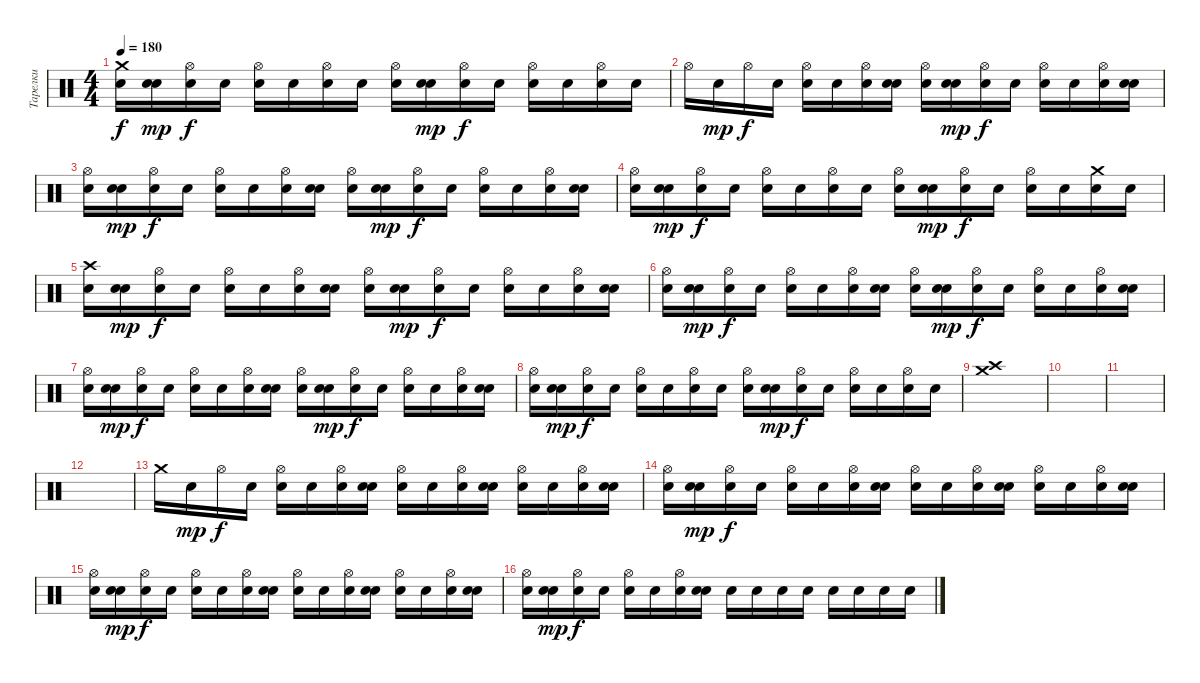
\track ("Тарелки" "Тарелки") {instrument percussion}
\staff {score}
\articulation defaults
\ts (4 4)
\tempo 180
\clef neutral
\ks c
("Crash medium (hit)" "Snare (hit)").16{dy f} ("Snare (hit)" "Snare (hit)").16{dy mp} ("Hi-Hat (open)" "Snare (hit)").16{dy f} "Snare (hit)".16 ("Hi-Hat (open)" "Snare (hit)").16 "Snare (hit)".16 ("Hi-Hat (open)" "Snare (hit)").16 "Snare (hit)".16 ("Hi-Hat (open)" "Snare (hit)").16 ("Snare (hit)" "Snare (hit)").16{dy mp} ("Hi-Hat (open)" "Snare (hit)").16{dy f} "Snare (hit)".16 ("Hi-Hat (open)" "Snare (hit)").16 "Snare (hit)".16 ("Hi-Hat (open)" "Snare (hit)").16 "Snare (hit)".16 |
"Hi-Hat (open)".16 "Snare (hit)".16{dy mp} "Hi-Hat (open)".16{dy f} "Snare (hit)".16 ("Hi-Hat (open)" "Snare (hit)").16 "Snare (hit)".16 ("Hi-Hat (open)" "Snare (hit)").16 ("Snare (hit)" "Snare (hit)").16 ("Hi-Hat (open)" "Snare (hit)").16 ("Snare (hit)" "Snare (hit)").16{dy mp} ("Hi-Hat (open)" "Snare (hit)").16{dy f} "Snare (hit)".16 ("Hi-Hat (open)" "Snare (hit)").16 "Snare (hit)".16 ("Hi-Hat (open)" "Snare (hit)").16 ("Snare (hit)" "Snare (hit)").16 |
("Hi-Hat (open)" "Snare (hit)").16 ("Snare (hit)" "Snare (hit)").16{dy mp} ("Hi-Hat (open)" "Snare (hit)").16{dy f} "Snare (hit)".16 ("Hi-Hat (open)" "Snare (hit)").16 "Snare (hit)".16 ("Hi-Hat (open)" "Snare (hit)").16 ("Snare (hit)" "Snare (hit)").16 ("Hi-Hat (open)" "Snare (hit)").16 ("Snare (hit)" "Snare (hit)").16{dy mp} ("Hi-Hat (open)" "Snare (hit)").16{dy f} "Snare (hit)".16 ("Hi-Hat (open)" "Snare (hit)").16 "Snare (hit)".16 ("Hi-Hat (open)" "Snare (hit)").16 ("Snare (hit)" "Snare (hit)").16 |
("Hi-Hat (open)" "Snare (hit)").16 ("Snare (hit)" "Snare (hit)").16{dy mp} ("Hi-Hat (open)" "Snare (hit)").16{dy f} "Snare (hit)".16 ("Hi-Hat (open)" "Snare (hit)").16 "Snare (hit)".16 ("Hi-Hat (open)" "Snare (hit)").16 "Snare (hit)".16 ("Hi-Hat (open)" "Snare (hit)").16 ("Snare (hit)" "Snare (hit)").16{dy mp} ("Hi-Hat (open)" "Snare (hit)").16{dy f} "Snare (hit)".16 ("Hi-Hat (open)" "Snare (hit)").16 "Snare (hit)".16 ("Crash medium (hit)" "Snare (hit)").16 "Snare (hit)".16 |
("Crash high (hit)" "Snare (hit)").16 ("Snare (hit)" "Snare (hit)").16{dy mp} ("Hi-Hat (open)" "Snare (hit)").16{dy f} "Snare (hit)".16 ("Hi-Hat (open)" "Snare (hit)").16 "Snare (hit)".16 ("Hi-Hat (open)" "Snare (hit)").16 ("Snare (hit)" "Snare (hit)").16 ("Hi-Hat (open)" "Snare (hit)").16 ("Snare (hit)" "Snare (hit)").16{dy mp} ("Hi-Hat (open)" "Snare (hit)").16{dy f} "Snare (hit)".16 ("Hi-Hat (open)" "Snare (hit)").16 "Snare (hit)".16 ("Hi-Hat (open)" "Snare (hit)").16 ("Snare (hit)" "Snare (hit)").16 |
("Hi-Hat (open)" "Snare (hit)").16 ("Snare (hit)" "Snare (hit)").16{dy mp} ("Hi-Hat (open)" "Snare (hit)").16{dy f} "Snare (hit)".16 ("Hi-Hat (open)" "Snare (hit)").16 "Snare (hit)".16 ("Hi-Hat (open)" "Snare (hit)").16 ("Snare (hit)" "Snare (hit)").16 ("Hi-Hat (open)" "Snare (hit)").16 ("Snare (hit)" "Snare (hit)").16{dy mp} ("Hi-Hat (open)" "Snare (hit)").16{dy f} "Snare (hit)".16 ("Hi-Hat (open)" "Snare (hit)").16 "Snare (hit)".16 ("Hi-Hat (open)" "Snare (hit)").16 ("Snare (hit)" "Snare (hit)").16 |
("Hi-Hat (open)" "Snare (hit)").16 ("Snare (hit)" "Snare (hit)").16{dy mp} ("Hi-Hat (open)" "Snare (hit)").16{dy f} "Snare (hit)".16 ("Hi-Hat (open)" "Snare (hit)").16 "Snare (hit)".16 ("Hi-Hat (open)" "Snare (hit)").16 ("Snare (hit)" "Snare (hit)").16 ("Hi-Hat (open)" "Snare (hit)").16 ("Snare (hit)" "Snare (hit)").16{dy mp} ("Hi-Hat (open)" "Snare (hit)").16{dy f} "Snare (hit)".16 ("Hi-Hat (open)" "Snare (hit)").16 "Snare (hit)".16 ("Hi-Hat (open)" "Snare (hit)").16 ("Snare (hit)" "Snare (hit)").16 |
("Hi-Hat (open)" "Snare (hit)").16 ("Snare (hit)" "Snare (hit)").16{dy mp} ("Hi-Hat (open)" "Snare (hit)").16{dy f} "Snare (hit)".16 ("Hi-Hat (open)" "Snare (hit)").16 "Snare (hit)".16 ("Hi-Hat (open)" "Snare (hit)").16 "Snare (hit)".16 ("Hi-Hat (open)" "Snare (hit)").16 ("Snare (hit)" "Snare (hit)").16{dy mp} ("Hi-Hat (open)" "Snare (hit)").16{dy f} "Snare (hit)".16 ("Hi-Hat (open)" "Snare (hit)").16 "Snare (hit)".16 ("Hi-Hat (open)" "Snare (hit)").16 "Snare (hit)".16 |
("Crash medium (hit)" "Crash high (hit)").1 |
|
|
|
"Crash medium (hit)".16 "Snare (hit)".16{dy mp} "Hi-Hat (open)".16{dy f} "Snare (hit)".16 ("Hi-Hat (open)" "Snare (hit)").16 "Snare (hit)".16 ("Hi-Hat (open)" "Snare (hit)").16 ("Snare (hit)" "Snare (hit)").16 ("Hi-Hat (open)" "Snare (hit)").16 "Snare (hit)".16 ("Hi-Hat (open)" "Snare (hit)").16 ("Snare (hit)" "Snare (hit)").16 ("Hi-Hat (open)" "Snare (hit)").16 "Snare (hit)".16 ("Hi-Hat (open)" "Snare (hit)").16 ("Snare (hit)" "Snare (hit)").16 |
("Hi-Hat (open)" "Snare (hit)").16 ("Snare (hit)" "Snare (hit)").16{dy mp} ("Hi-Hat (open)" "Snare (hit)").16{dy f} "Snare (hit)".16 ("Hi-Hat (open)" "Snare (hit)").16 "Snare (hit)".16 ("Hi-Hat (open)" "Snare (hit)").16 ("Snare (hit)" "Snare (hit)").16 ("Hi-Hat (open)" "Snare (hit)").16 "Snare (hit)".16 ("Hi-Hat (open)" "Snare (hit)").16 ("Snare (hit)" "Snare (hit)").16 ("Hi-Hat (open)" "Snare (hit)").16 "Snare (hit)".16 ("Hi-Hat (open)" "Snare (hit)").16 ("Snare (hit)" "Snare (hit)").16 |
("Hi-Hat (open)" "Snare (hit)").16 ("Snare (hit)" "Snare (hit)").16{dy mp} ("Hi-Hat (open)" "Snare (hit)").16{dy f} "Snare (hit)".16 ("Hi-Hat (open)" "Snare (hit)").16 "Snare (hit)".16 ("Hi-Hat (open)" "Snare (hit)").16 ("Snare (hit)" "Snare (hit)").16 ("Hi-Hat (open)" "Snare (hit)").16 "Snare (hit)".16 ("Hi-Hat (open)" "Snare (hit)").16 ("Snare (hit)" "Snare (hit)").16 ("Hi-Hat (open)" "Snare (hit)").16 "Snare (hit)".16 ("Hi-Hat (open)" "Snare (hit)").16 ("Snare (hit)" "Snare (hit)").16 |
("Hi-Hat (open)" "Snare (hit)").16 ("Snare (hit)" "Snare (hit)").16{dy mp} ("Hi-Hat (open)" "Snare (hit)").16{dy f} "Snare (hit)".16 ("Hi-Hat (open)" "Snare (hit)").16 "Snare (hit)".16 ("Hi-Hat (open)" "Snare (hit)").16 ("Snare (hit)" "Snare (hit)").16 "Snare (hit)".16 "Snare (hit)".16 "Snare (hit)".16 "Snare (hit)".16 "Snare (hit)".16 "Snare (hit)".16 "Snare (hit)".16 "Snare (hit)".16
